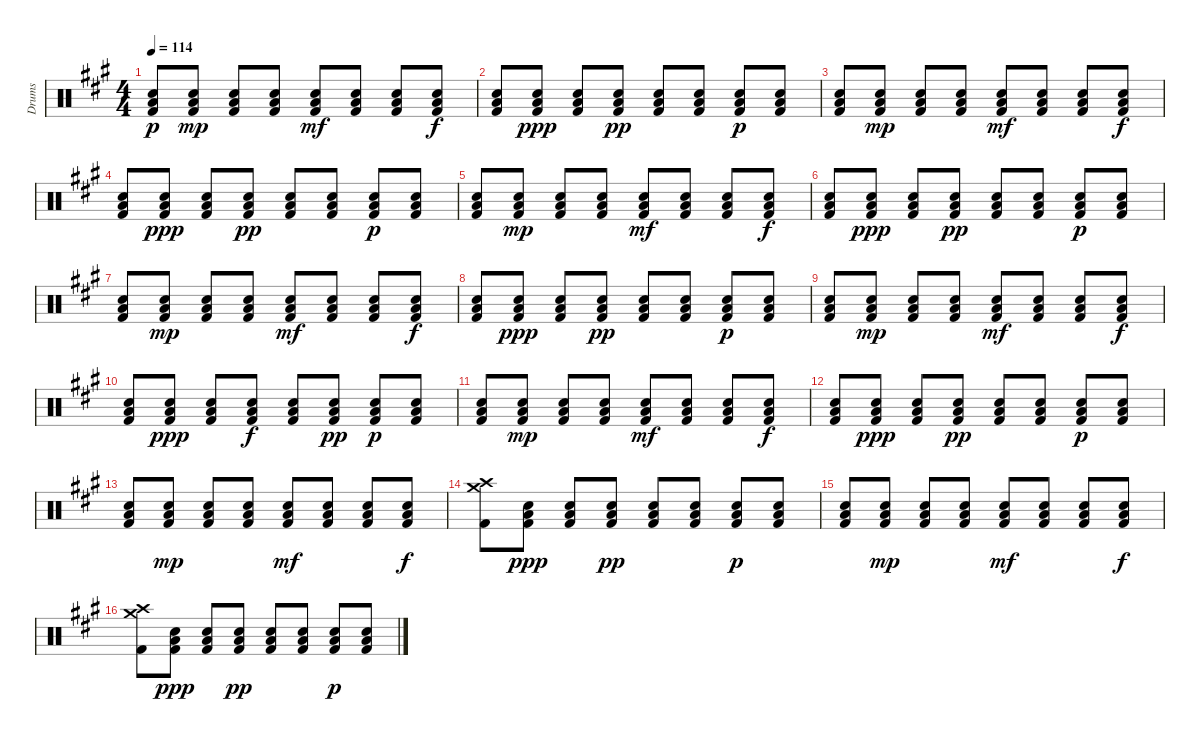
\track ("Drums" "Drums") {instrument percussion}
\staff {score}
\articulation defaults
\ts (4 4)
\tempo 114
\clef neutral
\ks a
("Low Floor Tom (hit)" "Snare (hit) 2" "Kick (hit) 2").8{dy p} ("Low Floor Tom (hit)" "Snare (hit) 2" "Kick (hit) 2").8{dy mp} ("Low Floor Tom (hit)" "Snare (hit) 2" "Kick (hit) 2").8 ("Low Floor Tom (hit)" "Snare (hit) 2" "Kick (hit) 2").8 ("Low Floor Tom (hit)" "Snare (hit) 2" "Kick (hit) 2").8{dy mf} ("Low Floor Tom (hit)" "Snare (hit) 2" "Kick (hit) 2").8 ("Low Floor Tom (hit)" "Snare (hit) 2" "Kick (hit) 2").8 ("Low Floor Tom (hit)" "Snare (hit) 2" "Kick (hit) 2").8{dy f} |
("Low Floor Tom (hit)" "Snare (hit) 2" "Kick (hit) 2").8 ("Low Floor Tom (hit)" "Snare (hit) 2" "Kick (hit) 2").8{dy ppp} ("Low Floor Tom (hit)" "Snare (hit) 2" "Kick (hit) 2").8 ("Low Floor Tom (hit)" "Snare (hit) 2" "Kick (hit) 2").8{dy pp} ("Low Floor Tom (hit)" "Snare (hit) 2" "Kick (hit) 2").8 ("Low Floor Tom (hit)" "Snare (hit) 2" "Kick (hit) 2").8 ("Low Floor Tom (hit)" "Snare (hit) 2" "Kick (hit) 2").8{dy p} ("Low Floor Tom (hit)" "Snare (hit) 2" "Kick (hit) 2").8 |
("Low Floor Tom (hit)" "Snare (hit) 2" "Kick (hit) 2").8 ("Low Floor Tom (hit)" "Snare (hit) 2" "Kick (hit) 2").8{dy mp} ("Low Floor Tom (hit)" "Snare (hit) 2" "Kick (hit) 2").8 ("Low Floor Tom (hit)" "Snare (hit) 2" "Kick (hit) 2").8 ("Low Floor Tom (hit)" "Snare (hit) 2" "Kick (hit) 2").8{dy mf} ("Low Floor Tom (hit)" "Snare (hit) 2" "Kick (hit) 2").8 ("Low Floor Tom (hit)" "Snare (hit) 2" "Kick (hit) 2").8 ("Low Floor Tom (hit)" "Snare (hit) 2" "Kick (hit) 2").8{dy f} |
("Low Floor Tom (hit)" "Snare (hit) 2" "Kick (hit) 2").8 ("Low Floor Tom (hit)" "Snare (hit) 2" "Kick (hit) 2").8{dy ppp} ("Low Floor Tom (hit)" "Snare (hit) 2" "Kick (hit) 2").8 ("Low Floor Tom (hit)" "Snare (hit) 2" "Kick (hit) 2").8{dy pp} ("Low Floor Tom (hit)" "Snare (hit) 2" "Kick (hit) 2").8 ("Low Floor Tom (hit)" "Snare (hit) 2" "Kick (hit) 2").8 ("Low Floor Tom (hit)" "Snare (hit) 2" "Kick (hit) 2").8{dy p} ("Low Floor Tom (hit)" "Snare (hit) 2" "Kick (hit) 2").8 |
("Low Floor Tom (hit)" "Snare (hit) 2" "Kick (hit) 2").8 ("Low Floor Tom (hit)" "Snare (hit) 2" "Kick (hit) 2").8{dy mp} ("Low Floor Tom (hit)" "Snare (hit) 2" "Kick (hit) 2").8 ("Low Floor Tom (hit)" "Snare (hit) 2" "Kick (hit) 2").8 ("Low Floor Tom (hit)" "Snare (hit) 2" "Kick (hit) 2").8{dy mf} ("Low Floor Tom (hit)" "Snare (hit) 2" "Kick (hit) 2").8 ("Low Floor Tom (hit)" "Snare (hit) 2" "Kick (hit) 2").8 ("Low Floor Tom (hit)" "Snare (hit) 2" "Kick (hit) 2").8{dy f} |
("Low Floor Tom (hit)" "Snare (hit) 2" "Kick (hit) 2").8 ("Low Floor Tom (hit)" "Snare (hit) 2" "Kick (hit) 2").8{dy ppp} ("Low Floor Tom (hit)" "Snare (hit) 2" "Kick (hit) 2").8 ("Low Floor Tom (hit)" "Snare (hit) 2" "Kick (hit) 2").8{dy pp} ("Low Floor Tom (hit)" "Snare (hit) 2" "Kick (hit) 2").8 ("Low Floor Tom (hit)" "Snare (hit) 2" "Kick (hit) 2").8 ("Low Floor Tom (hit)" "Snare (hit) 2" "Kick (hit) 2").8{dy p} ("Low Floor Tom (hit)" "Snare (hit) 2" "Kick (hit) 2").8 |
("Low Floor Tom (hit)" "Snare (hit) 2" "Kick (hit) 2").8 ("Low Floor Tom (hit)" "Snare (hit) 2" "Kick (hit) 2").8{dy mp} ("Low Floor Tom (hit)" "Snare (hit) 2" "Kick (hit) 2").8 ("Low Floor Tom (hit)" "Snare (hit) 2" "Kick (hit) 2").8 ("Low Floor Tom (hit)" "Snare (hit) 2" "Kick (hit) 2").8{dy mf} ("Low Floor Tom (hit)" "Snare (hit) 2" "Kick (hit) 2").8 ("Low Floor Tom (hit)" "Snare (hit) 2" "Kick (hit) 2").8 ("Low Floor Tom (hit)" "Snare (hit) 2" "Kick (hit) 2").8{dy f} |
("Low Floor Tom (hit)" "Snare (hit) 2" "Kick (hit) 2").8 ("Low Floor Tom (hit)" "Snare (hit) 2" "Kick (hit) 2").8{dy ppp} ("Low Floor Tom (hit)" "Snare (hit) 2" "Kick (hit) 2").8 ("Low Floor Tom (hit)" "Snare (hit) 2" "Kick (hit) 2").8{dy pp} ("Low Floor Tom (hit)" "Snare (hit) 2" "Kick (hit) 2").8 ("Low Floor Tom (hit)" "Snare (hit) 2" "Kick (hit) 2").8 ("Low Floor Tom (hit)" "Snare (hit) 2" "Kick (hit) 2").8{dy p} ("Low Floor Tom (hit)" "Snare (hit) 2" "Kick (hit) 2").8 |
("Low Floor Tom (hit)" "Snare (hit) 2" "Kick (hit) 2").8 ("Low Floor Tom (hit)" "Snare (hit) 2" "Kick (hit) 2").8{dy mp} ("Low Floor Tom (hit)" "Snare (hit) 2" "Kick (hit) 2").8 ("Low Floor Tom (hit)" "Snare (hit) 2" "Kick (hit) 2").8 ("Low Floor Tom (hit)" "Snare (hit) 2" "Kick (hit) 2").8{dy mf} ("Low Floor Tom (hit)" "Snare (hit) 2" "Kick (hit) 2").8 ("Low Floor Tom (hit)" "Snare (hit) 2" "Kick (hit) 2").8 ("Low Floor Tom (hit)" "Snare (hit) 2" "Kick (hit) 2").8{dy f} |
("Low Floor Tom (hit)" "Snare (hit) 2" "Kick (hit) 2").8 ("Low Floor Tom (hit)" "Snare (hit) 2" "Kick (hit) 2").8{dy ppp} ("Low Floor Tom (hit)" "Snare (hit) 2" "Kick (hit) 2").8 ("Low Floor Tom (hit)" "Snare (hit) 2" "Kick (hit) 2").8{dy f} ("Low Floor Tom (hit)" "Snare (hit) 2" "Kick (hit) 2").8 ("Low Floor Tom (hit)" "Snare (hit) 2" "Kick (hit) 2").8{dy pp} ("Low Floor Tom (hit)" "Snare (hit) 2" "Kick (hit) 2").8{dy p} ("Low Floor Tom (hit)" "Snare (hit) 2" "Kick (hit) 2").8 |
("Low Floor Tom (hit)" "Snare (hit) 2" "Kick (hit) 2").8 ("Low Floor Tom (hit)" "Snare (hit) 2" "Kick (hit) 2").8{dy mp} ("Low Floor Tom (hit)" "Snare (hit) 2" "Kick (hit) 2").8 ("Low Floor Tom (hit)" "Snare (hit) 2" "Kick (hit) 2").8 ("Low Floor Tom (hit)" "Snare (hit) 2" "Kick (hit) 2").8{dy mf} ("Low Floor Tom (hit)" "Snare (hit) 2" "Kick (hit) 2").8 ("Low Floor Tom (hit)" "Snare (hit) 2" "Kick (hit) 2").8 ("Low Floor Tom (hit)" "Snare (hit) 2" "Kick (hit) 2").8{dy f} |
("Low Floor Tom (hit)" "Snare (hit) 2" "Kick (hit) 2").8 ("Low Floor Tom (hit)" "Snare (hit) 2" "Kick (hit) 2").8{dy ppp} ("Low Floor Tom (hit)" "Snare (hit) 2" "Kick (hit) 2").8 ("Low Floor Tom (hit)" "Snare (hit) 2" "Kick (hit) 2").8{dy pp} ("Low Floor Tom (hit)" "Snare (hit) 2" "Kick (hit) 2").8 ("Low Floor Tom (hit)" "Snare (hit) 2" "Kick (hit) 2").8 ("Low Floor Tom (hit)" "Snare (hit) 2" "Kick (hit) 2").8{dy p} ("Low Floor Tom (hit)" "Snare (hit) 2" "Kick (hit) 2").8 |
("Low Floor Tom (hit)" "Snare (hit) 2" "Kick (hit) 2").8 ("Low Floor Tom (hit)" "Snare (hit) 2" "Kick (hit) 2").8{dy mp} ("Low Floor Tom (hit)" "Snare (hit) 2" "Kick (hit) 2").8 ("Low Floor Tom (hit)" "Snare (hit) 2" "Kick (hit) 2").8 ("Low Floor Tom (hit)" "Snare (hit) 2" "Kick (hit) 2").8{dy mf} ("Low Floor Tom (hit)" "Snare (hit) 2" "Kick (hit) 2").8 ("Low Floor Tom (hit)" "Snare (hit) 2" "Kick (hit) 2").8 ("Low Floor Tom (hit)" "Snare (hit) 2" "Kick (hit) 2").8{dy f} |
("Crash high (hit)" "Crash medium (hit)" "Kick (hit) 2").8 ("Low Floor Tom (hit)" "Snare (hit) 2" "Kick (hit) 2").8{dy ppp} ("Low Floor Tom (hit)" "Snare (hit) 2" "Kick (hit) 2").8 ("Low Floor Tom (hit)" "Snare (hit) 2" "Kick (hit) 2").8{dy pp} ("Low Floor Tom (hit)" "Snare (hit) 2" "Kick (hit) 2").8 ("Low Floor Tom (hit)" "Snare (hit) 2" "Kick (hit) 2").8 ("Low Floor Tom (hit)" "Snare (hit) 2" "Kick (hit) 2").8{dy p} ("Low Floor Tom (hit)" "Snare (hit) 2" "Kick (hit) 2").8 |
("Low Floor Tom (hit)" "Snare (hit) 2" "Kick (hit) 2").8 ("Low Floor Tom (hit)" "Snare (hit) 2" "Kick (hit) 2").8{dy mp} ("Low Floor Tom (hit)" "Snare (hit) 2" "Kick (hit) 2").8 ("Low Floor Tom (hit)" "Snare (hit) 2" "Kick (hit) 2").8 ("Low Floor Tom (hit)" "Snare (hit) 2" "Kick (hit) 2").8{dy mf} ("Low Floor Tom (hit)" "Snare (hit) 2" "Kick (hit) 2").8 ("Low Floor Tom (hit)" "Snare (hit) 2" "Kick (hit) 2").8 ("Low Floor Tom (hit)" "Snare (hit) 2" "Kick (hit) 2").8{dy f} |
("Crash high (hit)" "Crash medium (hit)" "Kick (hit) 2").8 ("Low Floor Tom (hit)" "Snare (hit) 2" "Kick (hit) 2").8{dy ppp} ("Low Floor Tom (hit)" "Snare (hit) 2" "Kick (hit) 2").8 ("Low Floor Tom (hit)" "Snare (hit) 2" "Kick (hit) 2").8{dy pp} ("Low Floor Tom (hit)" "Snare (hit) 2" "Kick (hit) 2").8 ("Low Floor Tom (hit)" "Snare (hit) 2" "Kick (hit) 2").8 ("Low Floor Tom (hit)" "Snare (hit) 2" "Kick (hit) 2").8{dy p} ("Low Floor Tom (hit)" "Snare (hit) 2" "Kick (hit) 2").8
